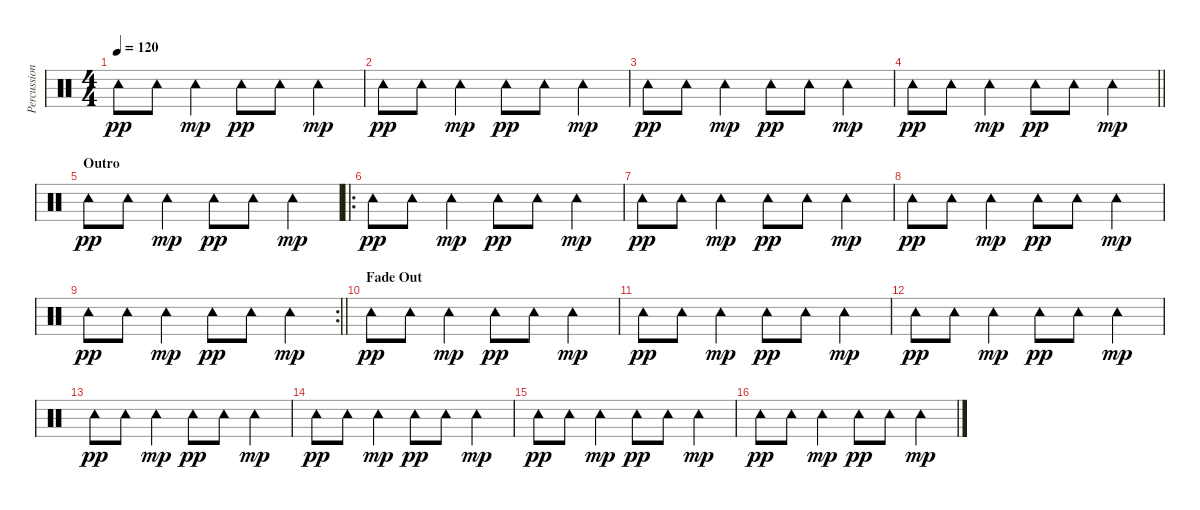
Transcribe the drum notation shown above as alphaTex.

\track ("Percussion" "Percussion") {instrument percussion}
\staff {score}
\articulation defaults
\ts (4 4)
\tempo 120
\clef neutral
\ks c "Tambourine (hit)".8{dy pp} "Tambourine (hit)".8 "Tambourine (hit)".4{dy mp} "Tambourine (hit)".8{dy pp} "Tambourine (hit)".8 "Tambourine (hit)".4{dy mp}
|
"Tambourine (hit)".8{dy pp} "Tambourine (hit)".8 "Tambourine (hit)".4{dy mp} "Tambourine (hit)".8{dy pp} "Tambourine (hit)".8 "Tambourine (hit)".4{dy mp} |
"Tambourine (hit)".8{dy pp} "Tambourine (hit)".8 "Tambourine (hit)".4{dy mp} "Tambourine (hit)".8{dy pp} "Tambourine (hit)".8 "Tambourine (hit)".4{dy mp} |
\barLineRight lightlight "Tambourine (hit)".8{dy pp} "Tambourine (hit)".8 "Tambourine (hit)".4{dy mp} "Tambourine (hit)".8{dy pp} "Tambourine (hit)".8 "Tambourine (hit)".4{dy mp}
|
\section ("" "Outro")
"Tambourine (hit)".8{dy pp} "Tambourine (hit)".8 "Tambourine (hit)".4{dy mp} "Tambourine (hit)".8{dy pp} "Tambourine (hit)".8 "Tambourine (hit)".4{dy mp} |
\ro "Tambourine (hit)".8{dy pp} "Tambourine (hit)".8 "Tambourine (hit)".4{dy mp} "Tambourine (hit)".8{dy pp} "Tambourine (hit)".8 "Tambourine (hit)".4{dy mp}
|
"Tambourine (hit)".8{dy pp} "Tambourine (hit)".8 "Tambourine (hit)".4{dy mp} "Tambourine (hit)".8{dy pp} "Tambourine (hit)".8 "Tambourine (hit)".4{dy mp} |
"Tambourine (hit)".8{dy pp} "Tambourine (hit)".8 "Tambourine (hit)".4{dy mp} "Tambourine (hit)".8{dy pp} "Tambourine (hit)".8 "Tambourine (hit)".4{dy mp} |
\rc 2
\barLineRight lightlight "Tambourine (hit)".8{dy pp} "Tambourine (hit)".8 "Tambourine (hit)".4{dy mp} "Tambourine (hit)".8{dy pp} "Tambourine (hit)".8 "Tambourine (hit)".4{dy mp}
|
\section ("" "Fade Out")
"Tambourine (hit)".8{dy pp volume 5} "Tambourine (hit)".8 "Tambourine (hit)".4{dy mp} "Tambourine (hit)".8{dy pp} "Tambourine (hit)".8 "Tambourine (hit)".4{dy mp} |
"Tambourine (hit)".8{dy pp} "Tambourine (hit)".8 "Tambourine (hit)".4{dy mp} "Tambourine (hit)".8{dy pp} "Tambourine (hit)".8 "Tambourine (hit)".4{dy mp} |
"Tambourine (hit)".8{dy pp} "Tambourine (hit)".8 "Tambourine (hit)".4{dy mp} "Tambourine (hit)".8{dy pp} "Tambourine (hit)".8 "Tambourine (hit)".4{dy mp} |
"Tambourine (hit)".8{dy pp} "Tambourine (hit)".8 "Tambourine (hit)".4{dy mp} "Tambourine (hit)".8{dy pp} "Tambourine (hit)".8 "Tambourine (hit)".4{dy mp} |
"Tambourine (hit)".8{dy pp} "Tambourine (hit)".8 "Tambourine (hit)".4{dy mp} "Tambourine (hit)".8{dy pp} "Tambourine (hit)".8 "Tambourine (hit)".4{dy mp} |
"Tambourine (hit)".8{dy pp} "Tambourine (hit)".8 "Tambourine (hit)".4{dy mp} "Tambourine (hit)".8{dy pp} "Tambourine (hit)".8 "Tambourine (hit)".4{dy mp} |
"Tambourine (hit)".8{dy pp} "Tambourine (hit)".8 "Tambourine (hit)".4{dy mp} "Tambourine (hit)".8{dy pp} "Tambourine (hit)".8 "Tambourine (hit)".4{dy mp}
